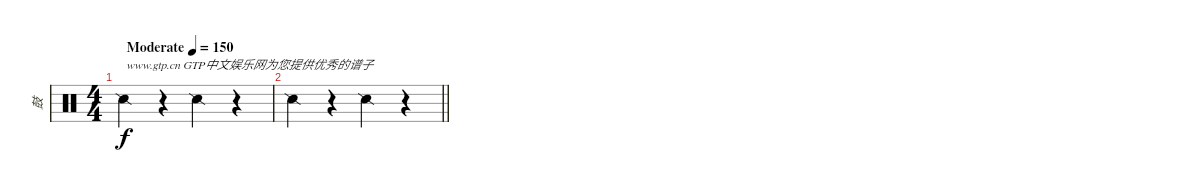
\track ("鼓" "鼓") {instrument percussion}
\staff {score}
\articulation defaults
\ts (4 4)
\tempo (150 "Moderate")
\clef neutral
\ks c "Snare (side stick) 2".4{txt "www.gtp.cn GTP中文娱乐网为您提供优秀的谱子" dy f}
r.4 "Snare (side stick) 2".4 r.4 |
\barLineRight lightlight "Snare (side stick) 2".4
r.4 "Snare (side stick) 2".4 r.4
